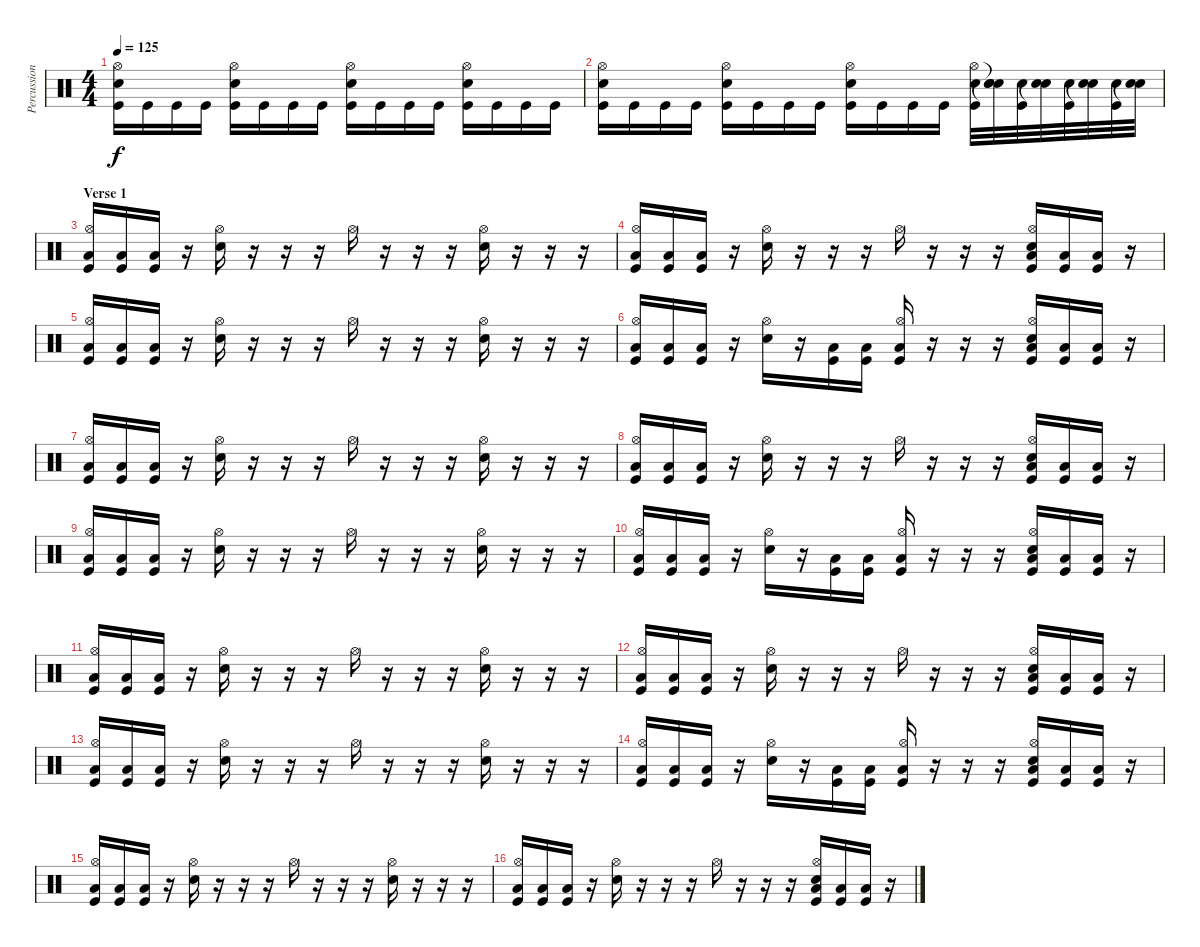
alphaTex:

\track ("Percussion" "Percussion") {instrument percussion}
\staff {score}
\articulation defaults
\ts (4 4)
\tempo 125
\clef neutral
\ks c
("Kick (hit)" "Electric Snare (hit)" "Hi-Hat (open)").16{dy f} "Kick (hit)".16 "Kick (hit)".16 "Kick (hit)".16 ("Kick (hit)" "Electric Snare (hit)" "Hi-Hat (open)").16 "Kick (hit)".16 "Kick (hit)".16 "Kick (hit)".16 ("Kick (hit)" "Electric Snare (hit)" "Hi-Hat (open)").16 "Kick (hit)".16 "Kick (hit)".16 "Kick (hit)".16 ("Kick (hit)" "Electric Snare (hit)" "Hi-Hat (open)").16 "Kick (hit)".16 "Kick (hit)".16 "Kick (hit)".16 |
("Kick (hit)" "Electric Snare (hit)" "Hi-Hat (open)").16 "Kick (hit)".16 "Kick (hit)".16 "Kick (hit)".16 ("Kick (hit)" "Electric Snare (hit)" "Hi-Hat (open)").16 "Kick (hit)".16 "Kick (hit)".16 "Kick (hit)".16 ("Kick (hit)" "Electric Snare (hit)" "Hi-Hat (open)").16 "Kick (hit)".16 "Kick (hit)".16 "Kick (hit)".16 ("Kick (hit)" "Electric Snare (hit)" "Hi-Hat (open)").32 ("Snare (hit)"{t} "Electric Snare (hit)" "Snare (hit)"{t}).32 ("Kick (hit)" "Electric Snare (hit)").32 ("Snare (hit)"{t} "Electric Snare (hit)").32 ("Kick (hit)" "Electric Snare (hit)").32 ("Snare (hit)"{t} "Electric Snare (hit)").32 ("Kick (hit)" "Electric Snare (hit)").32 ("Snare (hit)"{t} "Electric Snare (hit)").32 |
\section ("" "Verse 1")
("Hi-Hat (open)" "Low Floor Tom (hit)" "Kick (hit)").16 ("Low Floor Tom (hit)" "Kick (hit)").16 ("Low Floor Tom (hit)" "Kick (hit)").16 r.16 ("Hi-Hat (open)" "Electric Snare (hit)").16 r.16 r.16 r.16 "Hi-Hat (open)".16 r.16 r.16 r.16 ("Hi-Hat (open)" "Electric Snare (hit)").16 r.16 r.16 r.16 |
("Hi-Hat (open)" "Low Floor Tom (hit)" "Kick (hit)").16 ("Low Floor Tom (hit)" "Kick (hit)").16 ("Low Floor Tom (hit)" "Kick (hit)").16 r.16 ("Hi-Hat (open)" "Electric Snare (hit)").16 r.16 r.16 r.16 "Hi-Hat (open)".16 r.16 r.16 r.16 ("Hi-Hat (open)" "Low Floor Tom (hit)" "Kick (hit)" "Electric Snare (hit)").16 ("Low Floor Tom (hit)" "Kick (hit)").16 ("Low Floor Tom (hit)" "Kick (hit)").16 r.16 |
("Hi-Hat (open)" "Low Floor Tom (hit)" "Kick (hit)").16 ("Low Floor Tom (hit)" "Kick (hit)").16 ("Low Floor Tom (hit)" "Kick (hit)").16 r.16 ("Hi-Hat (open)" "Electric Snare (hit)").16 r.16 r.16 r.16 "Hi-Hat (open)".16 r.16 r.16 r.16 ("Hi-Hat (open)" "Electric Snare (hit)").16 r.16 r.16 r.16 |
("Hi-Hat (open)" "Low Floor Tom (hit)" "Kick (hit)").16 ("Low Floor Tom (hit)" "Kick (hit)").16 ("Low Floor Tom (hit)" "Kick (hit)").16 r.16 ("Hi-Hat (open)" "Electric Snare (hit)").16 r.16 ("Low Floor Tom (hit)" "Kick (hit)").16 ("Low Floor Tom (hit)" "Kick (hit)").16 ("Hi-Hat (open)" "Low Floor Tom (hit)" "Kick (hit)").16 r.16 r.16 r.16 ("Hi-Hat (open)" "Low Floor Tom (hit)" "Kick (hit)" "Electric Snare (hit)").16 ("Low Floor Tom (hit)" "Kick (hit)").16 ("Low Floor Tom (hit)" "Kick (hit)").16 r.16 |
("Hi-Hat (open)" "Low Floor Tom (hit)" "Kick (hit)").16 ("Low Floor Tom (hit)" "Kick (hit)").16 ("Low Floor Tom (hit)" "Kick (hit)").16 r.16 ("Hi-Hat (open)" "Electric Snare (hit)").16 r.16 r.16 r.16 "Hi-Hat (open)".16 r.16 r.16 r.16 ("Hi-Hat (open)" "Electric Snare (hit)").16 r.16 r.16 r.16 |
("Hi-Hat (open)" "Low Floor Tom (hit)" "Kick (hit)").16 ("Low Floor Tom (hit)" "Kick (hit)").16 ("Low Floor Tom (hit)" "Kick (hit)").16 r.16 ("Hi-Hat (open)" "Electric Snare (hit)").16 r.16 r.16 r.16 "Hi-Hat (open)".16 r.16 r.16 r.16 ("Hi-Hat (open)" "Low Floor Tom (hit)" "Kick (hit)" "Electric Snare (hit)").16 ("Low Floor Tom (hit)" "Kick (hit)").16 ("Low Floor Tom (hit)" "Kick (hit)").16 r.16 |
("Hi-Hat (open)" "Low Floor Tom (hit)" "Kick (hit)").16 ("Low Floor Tom (hit)" "Kick (hit)").16 ("Low Floor Tom (hit)" "Kick (hit)").16 r.16 ("Hi-Hat (open)" "Electric Snare (hit)").16 r.16 r.16 r.16 "Hi-Hat (open)".16 r.16 r.16 r.16 ("Hi-Hat (open)" "Electric Snare (hit)").16 r.16 r.16 r.16 |
("Hi-Hat (open)" "Low Floor Tom (hit)" "Kick (hit)").16 ("Low Floor Tom (hit)" "Kick (hit)").16 ("Low Floor Tom (hit)" "Kick (hit)").16 r.16 ("Hi-Hat (open)" "Electric Snare (hit)").16 r.16 ("Low Floor Tom (hit)" "Kick (hit)").16 ("Low Floor Tom (hit)" "Kick (hit)").16 ("Hi-Hat (open)" "Low Floor Tom (hit)" "Kick (hit)").16 r.16 r.16 r.16 ("Hi-Hat (open)" "Low Floor Tom (hit)" "Kick (hit)" "Electric Snare (hit)").16 ("Low Floor Tom (hit)" "Kick (hit)").16 ("Low Floor Tom (hit)" "Kick (hit)").16 r.16 |
("Hi-Hat (open)" "Low Floor Tom (hit)" "Kick (hit)").16 ("Low Floor Tom (hit)" "Kick (hit)").16 ("Low Floor Tom (hit)" "Kick (hit)").16 r.16 ("Hi-Hat (open)" "Electric Snare (hit)").16 r.16 r.16 r.16 "Hi-Hat (open)".16 r.16 r.16 r.16 ("Hi-Hat (open)" "Electric Snare (hit)").16 r.16 r.16 r.16 |
("Hi-Hat (open)" "Low Floor Tom (hit)" "Kick (hit)").16 ("Low Floor Tom (hit)" "Kick (hit)").16 ("Low Floor Tom (hit)" "Kick (hit)").16 r.16 ("Hi-Hat (open)" "Electric Snare (hit)").16 r.16 r.16 r.16 "Hi-Hat (open)".16 r.16 r.16 r.16 ("Hi-Hat (open)" "Low Floor Tom (hit)" "Kick (hit)" "Electric Snare (hit)").16 ("Low Floor Tom (hit)" "Kick (hit)").16 ("Low Floor Tom (hit)" "Kick (hit)").16 r.16 |
("Hi-Hat (open)" "Low Floor Tom (hit)" "Kick (hit)").16 ("Low Floor Tom (hit)" "Kick (hit)").16 ("Low Floor Tom (hit)" "Kick (hit)").16 r.16 ("Hi-Hat (open)" "Electric Snare (hit)").16 r.16 r.16 r.16 "Hi-Hat (open)".16 r.16 r.16 r.16 ("Hi-Hat (open)" "Electric Snare (hit)").16 r.16 r.16 r.16 |
("Hi-Hat (open)" "Low Floor Tom (hit)" "Kick (hit)").16 ("Low Floor Tom (hit)" "Kick (hit)").16 ("Low Floor Tom (hit)" "Kick (hit)").16 r.16 ("Hi-Hat (open)" "Electric Snare (hit)").16 r.16 ("Low Floor Tom (hit)" "Kick (hit)").16 ("Low Floor Tom (hit)" "Kick (hit)").16 ("Hi-Hat (open)" "Low Floor Tom (hit)" "Kick (hit)").16 r.16 r.16 r.16 ("Hi-Hat (open)" "Low Floor Tom (hit)" "Kick (hit)" "Electric Snare (hit)").16 ("Low Floor Tom (hit)" "Kick (hit)").16 ("Low Floor Tom (hit)" "Kick (hit)").16 r.16 |
("Hi-Hat (open)" "Low Floor Tom (hit)" "Kick (hit)").16 ("Low Floor Tom (hit)" "Kick (hit)").16 ("Low Floor Tom (hit)" "Kick (hit)").16 r.16 ("Hi-Hat (open)" "Electric Snare (hit)").16 r.16 r.16 r.16 "Hi-Hat (open)".16 r.16 r.16 r.16 ("Hi-Hat (open)" "Electric Snare (hit)").16 r.16 r.16 r.16 |
("Hi-Hat (open)" "Low Floor Tom (hit)" "Kick (hit)").16 ("Low Floor Tom (hit)" "Kick (hit)").16 ("Low Floor Tom (hit)" "Kick (hit)").16 r.16 ("Hi-Hat (open)" "Electric Snare (hit)").16 r.16 r.16 r.16 "Hi-Hat (open)".16 r.16 r.16 r.16 ("Hi-Hat (open)" "Low Floor Tom (hit)" "Kick (hit)" "Electric Snare (hit)").16 ("Low Floor Tom (hit)" "Kick (hit)").16 ("Low Floor Tom (hit)" "Kick (hit)").16 r.16
